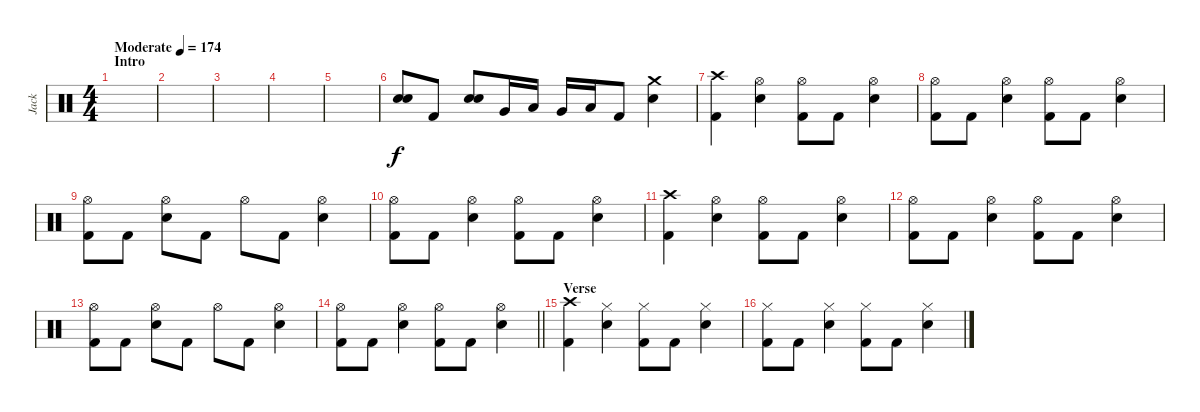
\track ("Jack" "Jack") {instrument percussion}
\staff {score}
\articulation defaults
\ts (4 4)
\section ("" "Intro")
\tempo (174 "Moderate")
\clef neutral
\ks c
|
|
|
|
|
("Electric Snare (hit)" "Electric Snare (hit)").8 "Kick (hit) 2".8 ("Electric Snare (hit)" "Electric Snare (hit)").8 "Very Low Tom (hit)".16 "Low Tom (hit)".16 "Very Low Tom (hit)".16 "Low Floor Tom (hit)".16 "Kick (hit) 2".8 ("Crash medium (hit)" "Electric Snare (hit)").4 |
("Crash high (hit)" "Kick (hit) 2").4 ("Hi-Hat (open)" "Electric Snare (hit)").4 ("Hi-Hat (open)" "Kick (hit) 2").8 "Kick (hit) 2".8 ("Hi-Hat (open)" "Electric Snare (hit)").4 |
("Hi-Hat (open)" "Kick (hit) 2").8 "Kick (hit) 2".8 ("Hi-Hat (open)" "Electric Snare (hit)").4 ("Hi-Hat (open)" "Kick (hit) 2").8 "Kick (hit) 2".8 ("Hi-Hat (open)" "Electric Snare (hit)").4 |
("Hi-Hat (open)" "Kick (hit) 2").8 "Kick (hit) 2".8 ("Hi-Hat (open)" "Electric Snare (hit)").8 "Kick (hit) 2".8 "Hi-Hat (open)".8 "Kick (hit) 2".8 ("Hi-Hat (open)" "Electric Snare (hit)").4 |
("Hi-Hat (open)" "Kick (hit) 2").8 "Kick (hit) 2".8 ("Hi-Hat (open)" "Electric Snare (hit)").4 ("Hi-Hat (open)" "Kick (hit) 2").8 "Kick (hit) 2".8 ("Hi-Hat (open)" "Electric Snare (hit)").4 |
("Crash high (hit)" "Kick (hit) 2").4 ("Hi-Hat (open)" "Electric Snare (hit)").4 ("Hi-Hat (open)" "Kick (hit) 2").8 "Kick (hit) 2".8 ("Hi-Hat (open)" "Electric Snare (hit)").4 |
("Hi-Hat (open)" "Kick (hit) 2").8 "Kick (hit) 2".8 ("Hi-Hat (open)" "Electric Snare (hit)").4 ("Hi-Hat (open)" "Kick (hit) 2").8 "Kick (hit) 2".8 ("Hi-Hat (open)" "Electric Snare (hit)").4 |
("Hi-Hat (open)" "Kick (hit) 2").8 "Kick (hit) 2".8 ("Hi-Hat (open)" "Electric Snare (hit)").8 "Kick (hit) 2".8 "Hi-Hat (open)".8 "Kick (hit) 2".8 ("Hi-Hat (open)" "Electric Snare (hit)").4 |
\barLineRight lightlight
("Hi-Hat (open)" "Kick (hit) 2").8 "Kick (hit) 2".8 ("Hi-Hat (open)" "Electric Snare (hit)").4 ("Hi-Hat (open)" "Kick (hit) 2").8 "Kick (hit) 2".8 ("Hi-Hat (open)" "Electric Snare (hit)").4 |
\section ("" "Verse")
("Crash high (hit)" "Kick (hit) 2").4 ("Hi-Hat (closed)" "Electric Snare (hit)").4 ("Hi-Hat (closed)" "Kick (hit) 2").8 "Kick (hit) 2".8 ("Hi-Hat (closed)" "Electric Snare (hit)").4 |
("Hi-Hat (closed)" "Kick (hit) 2").8 "Kick (hit) 2".8 ("Hi-Hat (closed)" "Electric Snare (hit)").4 ("Hi-Hat (closed)" "Kick (hit) 2").8 "Kick (hit) 2".8 ("Hi-Hat (closed)" "Electric Snare (hit)").4
